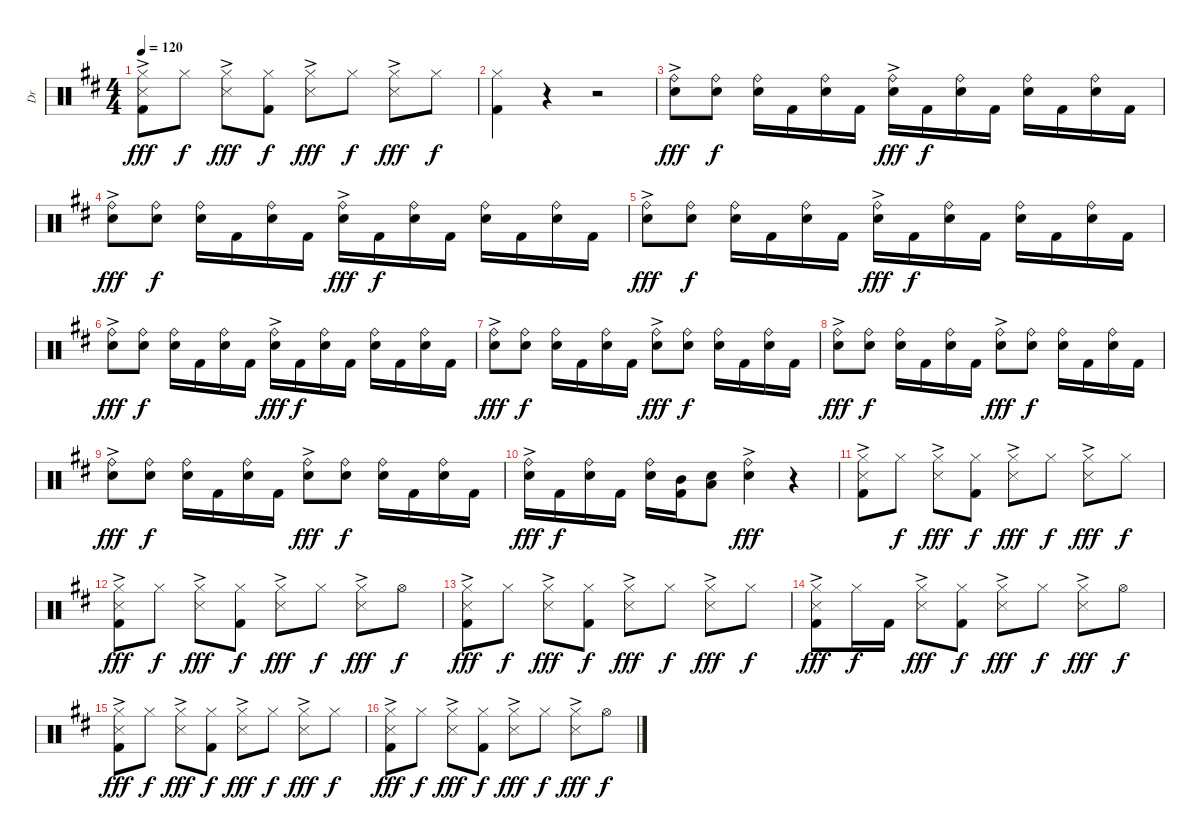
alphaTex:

\track ("Dr" "Dr") {instrument percussion}
\staff {score}
\articulation defaults
\ts (4 4)
\tempo 120
\clef neutral
\ks d
("Hi-Hat (closed)" "Snare (side stick) 3"{ac} "Kick (hit) 2").8{dy fff} "Hi-Hat (closed)".8{dy f} ("Hi-Hat (closed)" "Snare (side stick) 3"{ac}).8{dy fff} ("Hi-Hat (closed)" "Kick (hit) 2").8{dy f} ("Hi-Hat (closed)" "Snare (side stick) 3"{ac}).8{dy fff} "Hi-Hat (closed)".8{dy f} ("Hi-Hat (closed)" "Snare (side stick) 3"{ac}).8{dy fff} "Hi-Hat (closed)".8{dy f} |
("Hi-Hat (closed)" "Kick (hit) 2").4 r.4 r.2 |
("Ride (bell)"{ac} "Electric Snare (hit)"{ac}).8{dy fff} ("Ride (bell)" "Electric Snare (hit)").8{dy f} ("Ride (bell)" "Electric Snare (hit)").16 "Kick (hit) 2".16 ("Ride (bell)" "Electric Snare (hit)").16 "Kick (hit) 2".16 ("Ride (bell)"{ac} "Electric Snare (hit)"{ac}).16{dy fff} "Kick (hit) 2".16{dy f} ("Ride (bell)" "Electric Snare (hit)").16 "Kick (hit) 2".16 ("Ride (bell)" "Electric Snare (hit)").16 "Kick (hit) 2".16 ("Ride (bell)" "Electric Snare (hit)").16 "Kick (hit) 2".16 |
("Ride (bell)"{ac} "Electric Snare (hit)"{ac}).8{dy fff} ("Ride (bell)" "Electric Snare (hit)").8{dy f} ("Ride (bell)" "Electric Snare (hit)").16 "Kick (hit) 2".16 ("Ride (bell)" "Electric Snare (hit)").16 "Kick (hit) 2".16 ("Ride (bell)"{ac} "Electric Snare (hit)"{ac}).16{dy fff} "Kick (hit) 2".16{dy f} ("Ride (bell)" "Electric Snare (hit)").16 "Kick (hit) 2".16 ("Ride (bell)" "Electric Snare (hit)").16 "Kick (hit) 2".16 ("Ride (bell)" "Electric Snare (hit)").16 "Kick (hit) 2".16 |
("Ride (bell)"{ac} "Electric Snare (hit)"{ac}).8{dy fff} ("Ride (bell)" "Electric Snare (hit)").8{dy f} ("Ride (bell)" "Electric Snare (hit)").16 "Kick (hit) 2".16 ("Ride (bell)" "Electric Snare (hit)").16 "Kick (hit) 2".16 ("Ride (bell)"{ac} "Electric Snare (hit)"{ac}).16{dy fff} "Kick (hit) 2".16{dy f} ("Ride (bell)" "Electric Snare (hit)").16 "Kick (hit) 2".16 ("Ride (bell)" "Electric Snare (hit)").16 "Kick (hit) 2".16 ("Ride (bell)" "Electric Snare (hit)").16 "Kick (hit) 2".16 |
("Ride (bell)"{ac} "Electric Snare (hit)"{ac}).8{dy fff} ("Ride (bell)" "Electric Snare (hit)").8{dy f} ("Ride (bell)" "Electric Snare (hit)").16 "Kick (hit) 2".16 ("Ride (bell)" "Electric Snare (hit)").16 "Kick (hit) 2".16 ("Ride (bell)"{ac} "Electric Snare (hit)"{ac}).16{dy fff} "Kick (hit) 2".16{dy f} ("Ride (bell)" "Electric Snare (hit)").16 "Kick (hit) 2".16 ("Ride (bell)" "Electric Snare (hit)").16 "Kick (hit) 2".16 ("Ride (bell)" "Electric Snare (hit)").16 "Kick (hit) 2".16 |
("Ride (bell)"{ac} "Electric Snare (hit)"{ac}).8{dy fff} ("Ride (bell)" "Electric Snare (hit)").8{dy f} ("Ride (bell)" "Electric Snare (hit)").16 "Kick (hit) 2".16 ("Ride (bell)" "Electric Snare (hit)").16 "Kick (hit) 2".16 ("Ride (bell)"{ac} "Electric Snare (hit)"{ac}).8{dy fff} ("Ride (bell)" "Electric Snare (hit)").8{dy f} ("Ride (bell)" "Electric Snare (hit)").16 "Kick (hit) 2".16 ("Ride (bell)" "Electric Snare (hit)").16 "Kick (hit) 2".16 |
("Ride (bell)"{ac} "Electric Snare (hit)"{ac}).8{dy fff} ("Ride (bell)" "Electric Snare (hit)").8{dy f} ("Ride (bell)" "Electric Snare (hit)").16 "Kick (hit) 2".16 ("Ride (bell)" "Electric Snare (hit)").16 "Kick (hit) 2".16 ("Ride (bell)"{ac} "Electric Snare (hit)"{ac}).8{dy fff} ("Ride (bell)" "Electric Snare (hit)").8{dy f} ("Ride (bell)" "Electric Snare (hit)").16 "Kick (hit) 2".16 ("Ride (bell)" "Electric Snare (hit)").16 "Kick (hit) 2".16 |
("Ride (bell)"{ac} "Electric Snare (hit)"{ac}).8{dy fff} ("Ride (bell)" "Electric Snare (hit)").8{dy f} ("Ride (bell)" "Electric Snare (hit)").16 "Kick (hit) 2".16 ("Ride (bell)" "Electric Snare (hit)").16 "Kick (hit) 2".16 ("Ride (bell)"{ac} "Electric Snare (hit)"{ac}).8{dy fff} ("Ride (bell)" "Electric Snare (hit)").8{dy f} ("Ride (bell)" "Electric Snare (hit)").16 "Kick (hit) 2".16 ("Ride (bell)" "Electric Snare (hit)").16 "Kick (hit) 2".16 |
("Ride (bell)"{ac} "Electric Snare (hit)"{ac}).16{dy fff} "Kick (hit) 2".16{dy f} ("Ride (bell)" "Electric Snare (hit)").16 "Kick (hit) 2".16 ("Ride (bell)" "Electric Snare (hit)").16 ("Mid Tom (hit)" "Kick (hit) 2").16 ("Electric Snare (hit)" "Low Tom (hit)").8 ("Ride (bell)"{ac} "Electric Snare (hit)"{ac}).4{dy fff} r.4 |
("Hi-Hat (closed)" "Snare (side stick) 3"{ac} "Kick (hit) 2").8 "Hi-Hat (closed)".8{dy f} ("Hi-Hat (closed)" "Snare (side stick) 3"{ac}).8{dy fff} ("Hi-Hat (closed)" "Kick (hit) 2").8{dy f} ("Hi-Hat (closed)" "Snare (side stick) 3"{ac}).8{dy fff} "Hi-Hat (closed)".8{dy f} ("Hi-Hat (closed)" "Snare (side stick) 3"{ac}).8{dy fff} "Hi-Hat (closed)".8{dy f} |
("Hi-Hat (closed)" "Snare (side stick) 3"{ac} "Kick (hit) 2").8{dy fff} "Hi-Hat (closed)".8{dy f} ("Hi-Hat (closed)" "Snare (side stick) 3"{ac}).8{dy fff} ("Hi-Hat (closed)" "Kick (hit) 2").8{dy f} ("Hi-Hat (closed)" "Snare (side stick) 3"{ac}).8{dy fff} "Hi-Hat (closed)".8{dy f} ("Hi-Hat (closed)" "Snare (side stick) 3"{ac}).8{dy fff} "Hi-Hat (open)".8{dy f} |
("Hi-Hat (closed)" "Snare (side stick) 3"{ac} "Kick (hit) 2").8{dy fff} "Hi-Hat (closed)".8{dy f} ("Hi-Hat (closed)" "Snare (side stick) 3"{ac}).8{dy fff} ("Hi-Hat (closed)" "Kick (hit) 2").8{dy f} ("Hi-Hat (closed)" "Snare (side stick) 3"{ac}).8{dy fff} "Hi-Hat (closed)".8{dy f} ("Hi-Hat (closed)" "Snare (side stick) 3"{ac}).8{dy fff} "Hi-Hat (closed)".8{dy f} |
("Hi-Hat (closed)" "Snare (side stick) 3"{ac} "Kick (hit) 2").8{dy fff} "Hi-Hat (closed)".16{dy f} "Kick (hit) 2".16 ("Hi-Hat (closed)" "Snare (side stick) 3"{ac}).8{dy fff} ("Hi-Hat (closed)" "Kick (hit) 2").8{dy f} ("Hi-Hat (closed)" "Snare (side stick) 3"{ac}).8{dy fff} "Hi-Hat (closed)".8{dy f} ("Hi-Hat (closed)" "Snare (side stick) 3"{ac}).8{dy fff} "Hi-Hat (open)".8{dy f} |
("Hi-Hat (closed)" "Snare (side stick) 3"{ac} "Kick (hit) 2").8{dy fff} "Hi-Hat (closed)".8{dy f} ("Hi-Hat (closed)" "Snare (side stick) 3"{ac}).8{dy fff} ("Hi-Hat (closed)" "Kick (hit) 2").8{dy f} ("Hi-Hat (closed)" "Snare (side stick) 3"{ac}).8{dy fff} "Hi-Hat (closed)".8{dy f} ("Hi-Hat (closed)" "Snare (side stick) 3"{ac}).8{dy fff} "Hi-Hat (closed)".8{dy f} |
("Hi-Hat (closed)" "Snare (side stick) 3"{ac} "Kick (hit) 2").8{dy fff} "Hi-Hat (closed)".8{dy f} ("Hi-Hat (closed)" "Snare (side stick) 3"{ac}).8{dy fff} ("Hi-Hat (closed)" "Kick (hit) 2").8{dy f} ("Hi-Hat (closed)" "Snare (side stick) 3"{ac}).8{dy fff} "Hi-Hat (closed)".8{dy f} ("Hi-Hat (closed)" "Snare (side stick) 3"{ac}).8{dy fff} "Hi-Hat (open)".8{dy f}
